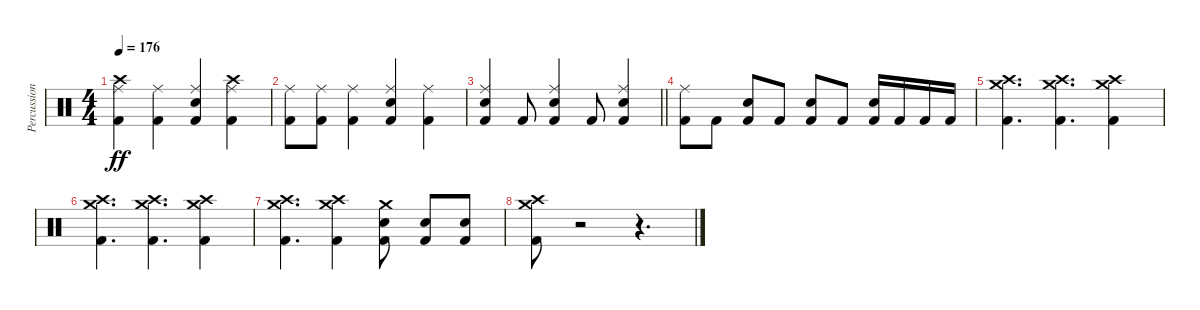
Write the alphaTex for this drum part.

\track ("Percussion" "Percussion") {instrument percussion}
\staff {score}
\articulation defaults
\ts (4 4)
\tempo 176
\clef neutral
\ks c
("Kick (hit) 2" "Ride (middle)" "Crash high (hit)").4{dy ff} ("Kick (hit) 2" "Ride (middle)").4 ("Kick (hit) 2" "Electric Snare (hit)" "Ride (middle)").4 ("Kick (hit) 2" "Ride (middle)" "Crash high (hit)").4 |
("Kick (hit) 2" "Ride (middle)").8 ("Kick (hit) 2" "Ride (middle)").8 ("Kick (hit) 2" "Ride (middle)").4 ("Kick (hit) 2" "Electric Snare (hit)" "Ride (middle)").4 ("Kick (hit) 2" "Ride (middle)").4 |
\barLineRight lightlight
("Kick (hit) 2" "Electric Snare (hit)" "Ride (middle)").4 "Kick (hit) 2".8 ("Kick (hit) 2" "Electric Snare (hit)" "Ride (middle)").4 "Kick (hit) 2".8 ("Kick (hit) 2" "Electric Snare (hit)" "Ride (middle)").4 |
("Kick (hit) 2" "Ride (middle)").8 "Kick (hit) 2".8 ("Kick (hit) 2" "Electric Snare (hit)").8 "Kick (hit) 2".8 ("Kick (hit) 2" "Electric Snare (hit)").8 "Kick (hit) 2".8 ("Kick (hit) 2" "Electric Snare (hit)").16 "Kick (hit) 2".16 "Kick (hit) 2".16 "Kick (hit) 2".16 |
("Kick (hit) 2" "Crash high (hit)" "Crash medium (hit)").4{d} ("Kick (hit) 2" "Crash high (hit)" "Crash medium (hit)").4{d} ("Kick (hit) 2" "Crash high (hit)" "Crash medium (hit)").4 |
("Kick (hit) 2" "Crash high (hit)" "Crash medium (hit)").4{d} ("Kick (hit) 2" "Crash high (hit)" "Crash medium (hit)").4{d} ("Kick (hit) 2" "Crash high (hit)" "Crash medium (hit)").4 |
("Kick (hit) 2" "Crash high (hit)" "Crash medium (hit)").4{d} ("Kick (hit) 2" "Crash high (hit)" "Crash medium (hit)").4 ("Kick (hit) 2" "Electric Snare (hit)" "Crash medium (hit)").8 ("Kick (hit) 2" "Electric Snare (hit)").8 ("Kick (hit) 2" "Electric Snare (hit)").8 |
("Kick (hit) 2" "Crash high (hit)" "Crash medium (hit)").8 r.2 r.4{d}
